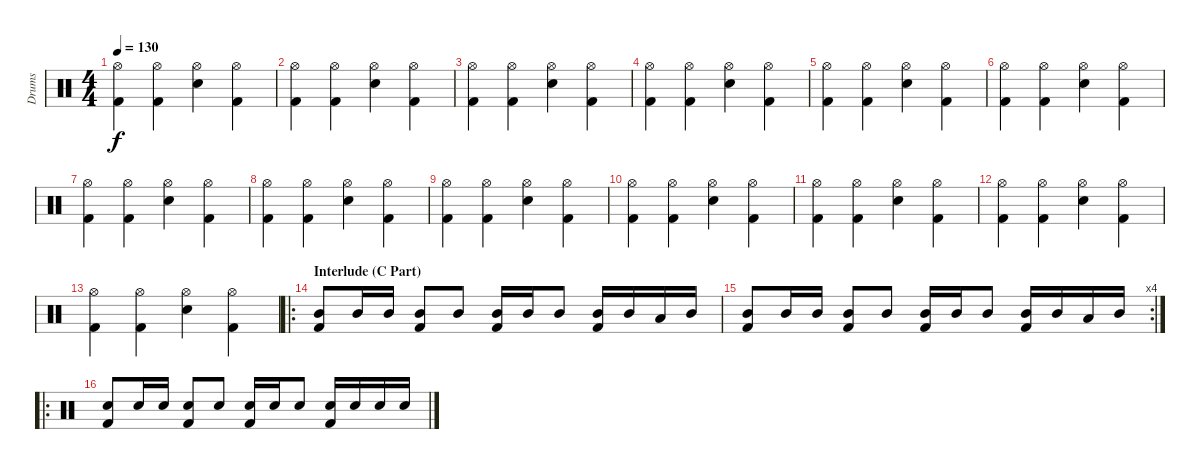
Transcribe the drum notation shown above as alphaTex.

\track ("Drums" "Drums") {instrument percussion}
\staff {score}
\articulation defaults
\ts (4 4)
\tempo 130
\clef neutral
\ks c
("Kick (hit) 2" "Hi-Hat (open)").4{dy f} ("Kick (hit) 2" "Hi-Hat (open)").4 ("Electric Snare (hit)" "Hi-Hat (open)").4 ("Kick (hit) 2" "Hi-Hat (open)").4 |
("Kick (hit) 2" "Hi-Hat (open)").4 ("Kick (hit) 2" "Hi-Hat (open)").4 ("Electric Snare (hit)" "Hi-Hat (open)").4 ("Kick (hit) 2" "Hi-Hat (open)").4 |
("Kick (hit) 2" "Hi-Hat (open)").4 ("Kick (hit) 2" "Hi-Hat (open)").4 ("Electric Snare (hit)" "Hi-Hat (open)").4 ("Kick (hit) 2" "Hi-Hat (open)").4 |
("Kick (hit) 2" "Hi-Hat (open)").4 ("Kick (hit) 2" "Hi-Hat (open)").4 ("Electric Snare (hit)" "Hi-Hat (open)").4 ("Kick (hit) 2" "Hi-Hat (open)").4 |
("Kick (hit) 2" "Hi-Hat (open)").4 ("Kick (hit) 2" "Hi-Hat (open)").4 ("Electric Snare (hit)" "Hi-Hat (open)").4 ("Kick (hit) 2" "Hi-Hat (open)").4 |
("Kick (hit) 2" "Hi-Hat (open)").4 ("Kick (hit) 2" "Hi-Hat (open)").4 ("Electric Snare (hit)" "Hi-Hat (open)").4 ("Kick (hit) 2" "Hi-Hat (open)").4 |
("Kick (hit) 2" "Hi-Hat (open)").4 ("Kick (hit) 2" "Hi-Hat (open)").4 ("Electric Snare (hit)" "Hi-Hat (open)").4 ("Kick (hit) 2" "Hi-Hat (open)").4 |
("Kick (hit) 2" "Hi-Hat (open)").4 ("Kick (hit) 2" "Hi-Hat (open)").4 ("Electric Snare (hit)" "Hi-Hat (open)").4 ("Kick (hit) 2" "Hi-Hat (open)").4 |
("Kick (hit) 2" "Hi-Hat (open)").4 ("Kick (hit) 2" "Hi-Hat (open)").4 ("Electric Snare (hit)" "Hi-Hat (open)").4 ("Kick (hit) 2" "Hi-Hat (open)").4 |
("Kick (hit) 2" "Hi-Hat (open)").4 ("Kick (hit) 2" "Hi-Hat (open)").4 ("Electric Snare (hit)" "Hi-Hat (open)").4 ("Kick (hit) 2" "Hi-Hat (open)").4 |
("Kick (hit) 2" "Hi-Hat (open)").4 ("Kick (hit) 2" "Hi-Hat (open)").4 ("Electric Snare (hit)" "Hi-Hat (open)").4 ("Kick (hit) 2" "Hi-Hat (open)").4 |
("Kick (hit) 2" "Hi-Hat (open)").4 ("Kick (hit) 2" "Hi-Hat (open)").4 ("Electric Snare (hit)" "Hi-Hat (open)").4 ("Kick (hit) 2" "Hi-Hat (open)").4 |
("Kick (hit) 2" "Hi-Hat (open)").4 ("Kick (hit) 2" "Hi-Hat (open)").4 ("Electric Snare (hit)" "Hi-Hat (open)").4 ("Kick (hit) 2" "Hi-Hat (open)").4 |
\ro
\section ("" "Interlude (C Part)")
("Mid Tom (hit)" "Kick (hit) 2").8 "Mid Tom (hit)".16 "Mid Tom (hit)".16 ("Mid Tom (hit)" "Kick (hit) 2").8 "Mid Tom (hit)".8 ("Mid Tom (hit)" "Kick (hit) 2").16 "Mid Tom (hit)".16 "Mid Tom (hit)".8 ("Mid Tom (hit)" "Kick (hit) 2").16 "Mid Tom (hit)".16 "Low Tom (hit)".16 "Mid Tom (hit)".16 |
\rc 4
("Mid Tom (hit)" "Kick (hit) 2").8 "Mid Tom (hit)".16 "Mid Tom (hit)".16 ("Mid Tom (hit)" "Kick (hit) 2").8 "Mid Tom (hit)".8 ("Mid Tom (hit)" "Kick (hit) 2").16 "Mid Tom (hit)".16 "Mid Tom (hit)".8 ("Mid Tom (hit)" "Kick (hit) 2").16 "Mid Tom (hit)".16 "Low Tom (hit)".16 "Mid Tom (hit)".16 |
\ro
("Electric Snare (hit)" "Kick (hit) 2").8 "Electric Snare (hit)".16 "Electric Snare (hit)".16 ("Electric Snare (hit)" "Kick (hit) 2").8 "Electric Snare (hit)".8 ("Electric Snare (hit)" "Kick (hit) 2").16 "Electric Snare (hit)".16 "Electric Snare (hit)".8 ("Electric Snare (hit)" "Kick (hit) 2").16 "Electric Snare (hit)".16 "Electric Snare (hit)".16 "Electric Snare (hit)".16
